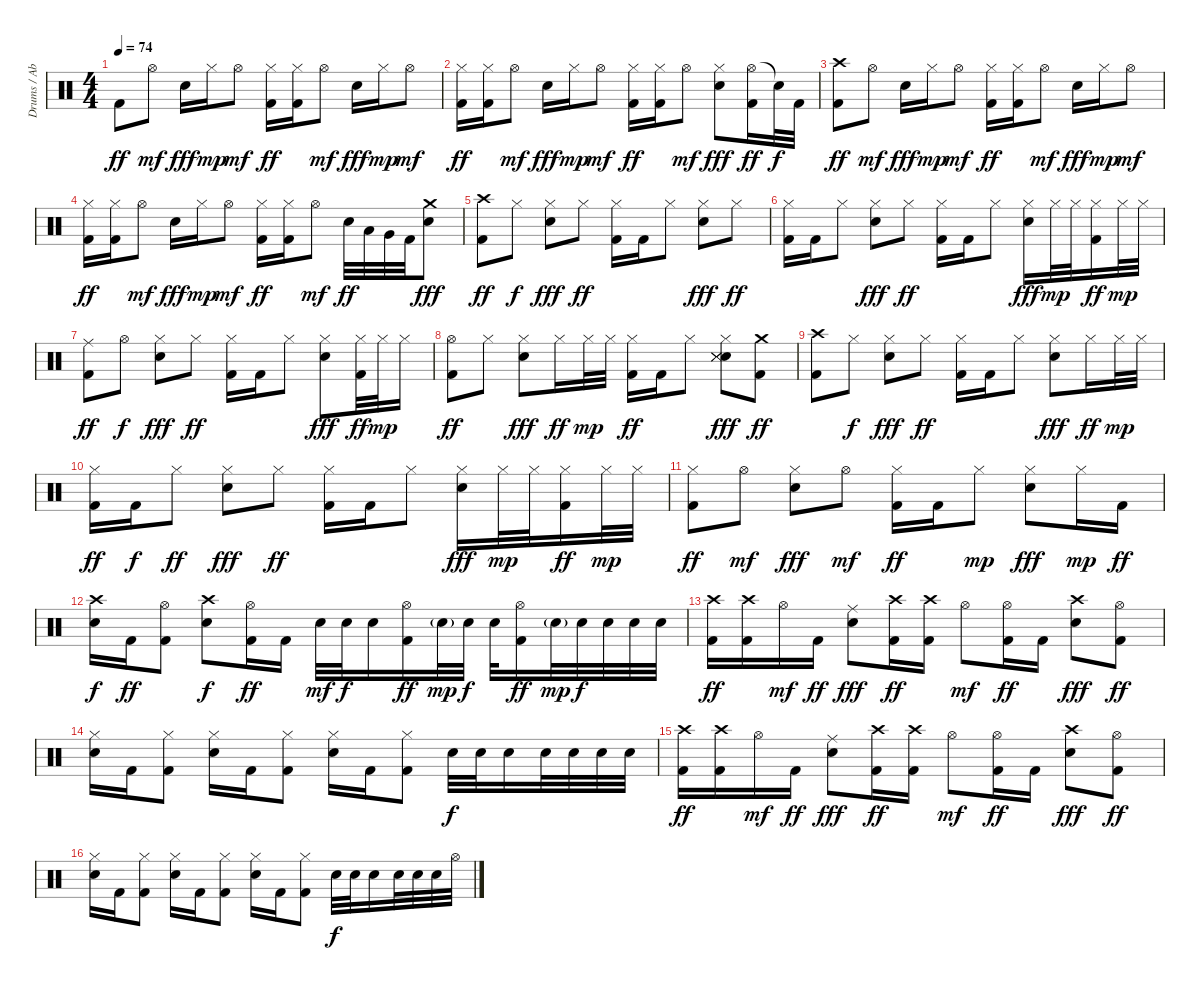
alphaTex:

\track ("Drums / Abe Cunningham" "Drums / Ab") {instrument percussion}
\staff {score}
\articulation defaults
\ts (4 4)
\tempo 74
\clef neutral
\ks c "Kick (hit) 2".8{dy ff} "Hi-Hat (open)".8{dy mf} "Electric Snare (hit)".16{dy fff} "Hi-Hat (closed)".16{dy mp} "Hi-Hat (open)".8{dy mf}
("Hi-Hat (closed)" "Kick (hit) 2").16{dy ff} ("Hi-Hat (closed)" "Kick (hit) 2").16 "Hi-Hat (open)".8{dy mf} "Electric Snare (hit)".16{dy fff} "Hi-Hat (closed)".16{dy mp} "Hi-Hat (open)".8{dy mf} |
("Hi-Hat (closed)" "Kick (hit) 2").16{dy ff} ("Hi-Hat (closed)" "Kick (hit) 2").16 "Hi-Hat (open)".8{dy mf} "Electric Snare (hit)".16{dy fff} "Hi-Hat (closed)".16{dy mp} "Hi-Hat (open)".8{dy mf} ("Hi-Hat (closed)" "Kick (hit) 2").16{dy ff} ("Hi-Hat (closed)" "Kick (hit) 2").16 "Hi-Hat (open)".8{dy mf} ("Hi-Hat (closed)" "Electric Snare (hit)").8{dy fff} ("Hi-Hat (open)" "Kick (hit) 2").16{dy ff} "Snare (hit)"{t}.32{dy f} "Kick (hit) 2".32 |
("Crash high (hit)" "Kick (hit) 2").8{dy ff} "Hi-Hat (open)".8{dy mf} "Electric Snare (hit)".16{dy fff} "Hi-Hat (closed)".16{dy mp} "Hi-Hat (open)".8{dy mf} ("Hi-Hat (closed)" "Kick (hit) 2").16{dy ff} ("Hi-Hat (closed)" "Kick (hit) 2").16 "Hi-Hat (open)".8{dy mf} "Electric Snare (hit)".16{dy fff} "Hi-Hat (closed)".16{dy mp} "Hi-Hat (open)".8{dy mf} |
("Hi-Hat (closed)" "Kick (hit) 2").16{dy ff} ("Hi-Hat (closed)" "Kick (hit) 2").16 "Hi-Hat (open)".8{dy mf} "Electric Snare (hit)".16{dy fff} "Hi-Hat (closed)".16{dy mp} "Hi-Hat (open)".8{dy mf} ("Hi-Hat (closed)" "Kick (hit) 2").16{dy ff} ("Hi-Hat (closed)" "Kick (hit) 2").16 "Hi-Hat (open)".8{dy mf} "Electric Snare (hit)".32{dy ff} "Low Tom (hit)".32 "Very Low Tom (hit)".32 "Kick (hit) 2".32 ("Crash medium (hit)" "Electric Snare (hit)").8{dy fff} |
("Crash high (hit)" "Kick (hit) 2").8{dy ff} "Hi-Hat (closed)".8{dy f} ("Hi-Hat (closed)" "Electric Snare (hit)").8{dy fff} "Hi-Hat (closed)".8{dy ff} ("Hi-Hat (closed)" "Kick (hit) 2").16 "Kick (hit) 2".16 "Hi-Hat (closed)".8 ("Hi-Hat (closed)" "Electric Snare (hit)").8{dy fff} "Hi-Hat (closed)".8{dy ff} |
("Hi-Hat (closed)" "Kick (hit) 2").16 "Kick (hit) 2".16 "Hi-Hat (closed)".8 ("Hi-Hat (closed)" "Electric Snare (hit)").8{dy fff} "Hi-Hat (closed)".8{dy ff} ("Hi-Hat (closed)" "Kick (hit) 2").16 "Kick (hit) 2".16 "Hi-Hat (closed)".8 ("Hi-Hat (closed)" "Electric Snare (hit)").16{dy fff} "Hi-Hat (closed)".32{dy mp} "Hi-Hat (closed)".32 ("Hi-Hat (closed)" "Kick (hit) 2").16{dy ff} "Hi-Hat (closed)".32{dy mp} "Hi-Hat (closed)".32 |
("Ride (middle)" "Kick (hit) 2").8{dy ff} "Hi-Hat (open)".8{dy f} ("Hi-Hat (closed)" "Electric Snare (hit)").8{dy fff} "Hi-Hat (closed)".8{dy ff} ("Hi-Hat (closed)" "Kick (hit) 2").16 "Kick (hit) 2".16 "Hi-Hat (closed)".8 ("Hi-Hat (closed)" "Electric Snare (hit)").8{dy fff} ("Hi-Hat (closed)" "Kick (hit) 2").32{dy ff} "Hi-Hat (closed)".32{dy mp} "Hi-Hat (closed)".16 |
("Hi-Hat (open)" "Kick (hit) 2").8{dy ff} "Hi-Hat (closed)".8 ("Hi-Hat (closed)" "Electric Snare (hit)").8{dy fff} "Hi-Hat (closed)".16{dy ff} "Hi-Hat (closed)".32{dy mp} "Hi-Hat (closed)".32 ("Hi-Hat (closed)" "Kick (hit) 2").16{dy ff} "Kick (hit) 2".16 "Hi-Hat (closed)".8 ("Hi-Hat (closed)" "Electric Snare (hit)" "Snare (side stick) 3" "Snare (side stick) 3" "Snare (side stick) 3").8{dy fff} ("Crash medium (hit)" "Kick (hit) 2").8{dy ff} |
("Crash high (hit)" "Kick (hit) 2").8 "Hi-Hat (closed)".8{dy f} ("Hi-Hat (closed)" "Electric Snare (hit)").8{dy fff} "Hi-Hat (closed)".8{dy ff} ("Hi-Hat (closed)" "Kick (hit) 2").16 "Kick (hit) 2".16 "Hi-Hat (closed)".8 ("Hi-Hat (closed)" "Electric Snare (hit)").8{dy fff} "Hi-Hat (closed)".16{dy ff} "Hi-Hat (closed)".32{dy mp} "Hi-Hat (closed)".32 |
("Hi-Hat (closed)" "Kick (hit) 2").16{dy ff} "Kick (hit) 2".16{dy f} "Hi-Hat (closed)".8{dy ff} ("Hi-Hat (closed)" "Electric Snare (hit)").8{dy fff} "Hi-Hat (closed)".8{dy ff} ("Hi-Hat (closed)" "Kick (hit) 2").16 "Kick (hit) 2".16 "Hi-Hat (closed)".8 ("Hi-Hat (closed)" "Electric Snare (hit)").16{dy fff} "Hi-Hat (closed)".32{dy mp} "Hi-Hat (closed)".32 ("Hi-Hat (closed)" "Kick (hit) 2").16{dy ff} "Hi-Hat (closed)".32{dy mp} "Hi-Hat (closed)".32 |
("Hi-Hat (closed)" "Kick (hit) 2").8{dy ff} "Hi-Hat (open)".8{dy mf} ("Hi-Hat (closed)" "Electric Snare (hit)").8{dy fff} "Hi-Hat (open)".8{dy mf} ("Hi-Hat (closed)" "Kick (hit) 2").16{dy ff} "Kick (hit) 2".16 "Hi-Hat (closed)".8{dy mp} ("Hi-Hat (closed)" "Electric Snare (hit)").8{dy fff} "Hi-Hat (closed)".16{dy mp} "Kick (hit) 2".16{dy ff} |
("Crash high (hit)" "Electric Snare (hit)").16{dy f} "Kick (hit) 2".16{dy ff} ("Hi-Hat (open)" "Kick (hit) 2").8 ("Crash high (hit)" "Electric Snare (hit)").8{dy f} ("Hi-Hat (open)" "Kick (hit) 2").16{dy ff} "Kick (hit) 2".16 "Electric Snare (hit)".32{dy mf} "Electric Snare (hit)".32{dy f} "Electric Snare (hit)".16 ("Hi-Hat (open)" "Kick (hit) 2").16{dy ff} "Electric Snare (hit)"{g}.32{dy mp} "Electric Snare (hit)".32{dy f} "Electric Snare (hit)".32 ("Hi-Hat (open)" "Kick (hit) 2").16{dy ff} "Electric Snare (hit)"{g}.32{dy mp} "Electric Snare (hit)".32{dy f} "Electric Snare (hit)".32 "Electric Snare (hit)".32 "Electric Snare (hit)".32 |
("Crash high (hit)" "Kick (hit) 2").16{dy ff} ("Crash high (hit)" "Kick (hit) 2").16 "Hi-Hat (open)".16{dy mf} "Kick (hit) 2".16{dy ff} ("Ride (middle)" "Electric Snare (hit)").8{dy fff} ("Crash high (hit)" "Kick (hit) 2").16{dy ff} ("Crash high (hit)" "Kick (hit) 2").16 "Hi-Hat (open)".8{dy mf} ("Hi-Hat (open)" "Kick (hit) 2").16{dy ff} "Kick (hit) 2".16 ("Crash high (hit)" "Electric Snare (hit)").8{dy fff} ("Hi-Hat (open)" "Kick (hit) 2").8{dy ff} |
("Hi-Hat (closed)" "Electric Snare (hit)").16 "Kick (hit) 2".16 ("Hi-Hat (closed)" "Kick (hit) 2").8 ("Hi-Hat (closed)" "Electric Snare (hit)").16 "Kick (hit) 2".16 ("Hi-Hat (closed)" "Kick (hit) 2").8 ("Hi-Hat (closed)" "Electric Snare (hit)").16 "Kick (hit) 2".16 ("Hi-Hat (closed)" "Kick (hit) 2").8 "Electric Snare (hit)".32{dy f} "Electric Snare (hit)".32 "Electric Snare (hit)".16 "Electric Snare (hit)".32 "Electric Snare (hit)".32 "Electric Snare (hit)".32 "Electric Snare (hit)".32 |
("Crash high (hit)" "Kick (hit) 2").16{dy ff} ("Crash high (hit)" "Kick (hit) 2").16 "Hi-Hat (open)".16{dy mf} "Kick (hit) 2".16{dy ff} ("Ride (middle)" "Electric Snare (hit)").8{dy fff} ("Crash high (hit)" "Kick (hit) 2").16{dy ff} ("Crash high (hit)" "Kick (hit) 2").16 "Hi-Hat (open)".8{dy mf} ("Hi-Hat (open)" "Kick (hit) 2").16{dy ff} "Kick (hit) 2".16 ("Crash high (hit)" "Electric Snare (hit)").8{dy fff} ("Hi-Hat (open)" "Kick (hit) 2").8{dy ff} |
("Hi-Hat (closed)" "Electric Snare (hit)").16 "Kick (hit) 2".16 ("Hi-Hat (closed)" "Kick (hit) 2").8 ("Hi-Hat (closed)" "Electric Snare (hit)").16 "Kick (hit) 2".16 ("Hi-Hat (closed)" "Kick (hit) 2").8 ("Hi-Hat (closed)" "Electric Snare (hit)").16 "Kick (hit) 2".16 ("Hi-Hat (closed)" "Kick (hit) 2").8 "Electric Snare (hit)".32{dy f} "Electric Snare (hit)".32 "Electric Snare (hit)".16 "Electric Snare (hit)".32 "Electric Snare (hit)".32 "Electric Snare (hit)".32 "Hi-Hat (open)".32
